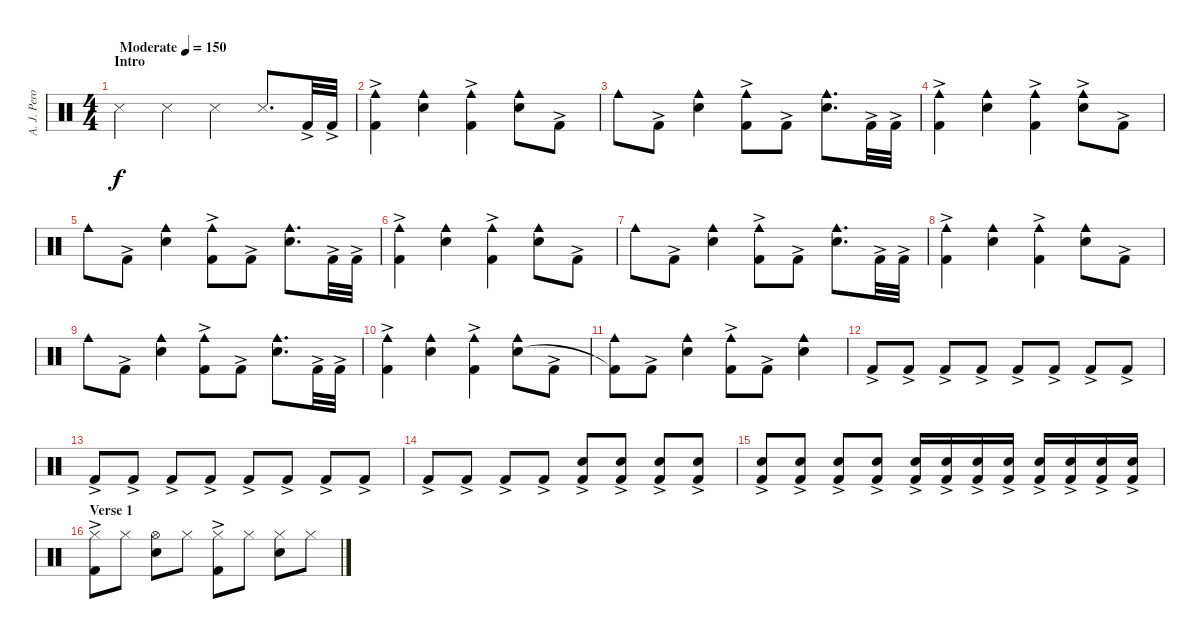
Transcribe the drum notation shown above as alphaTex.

\track ("A. J. Pero - Drums" "A. J. Pero") {instrument percussion}
\staff {score}
\articulation defaults
\ts (4 4)
\section ("" "Intro")
\tempo (150 "Moderate")
\clef neutral
\ks c "Snare (side stick) 3".4{dy f} "Snare (side stick) 3".4 "Snare (side stick) 3".4 "Snare (side stick) 3".8{d} "Kick (hit) 2"{ac}.32 "Kick (hit) 2"{ac}.32
|
("Cowbell medium (hit)" "Kick (hit) 2"{ac}).4 ("Cowbell medium (hit)" "Electric Snare (hit)").4 ("Cowbell medium (hit)" "Kick (hit) 2"{ac}).4 ("Cowbell medium (hit)" "Electric Snare (hit)").8 "Kick (hit) 2"{ac}.8 |
"Cowbell medium (hit)".8 "Kick (hit) 2"{ac}.8 ("Cowbell medium (hit)" "Electric Snare (hit)").4 ("Cowbell medium (hit)" "Kick (hit) 2"{ac}).8 "Kick (hit) 2"{ac}.8 ("Cowbell medium (hit)" "Electric Snare (hit)").8{d} "Kick (hit) 2"{ac}.32 "Kick (hit) 2"{ac}.32 |
("Cowbell medium (hit)" "Kick (hit) 2"{ac}).4 ("Cowbell medium (hit)" "Electric Snare (hit)").4 ("Cowbell medium (hit)" "Kick (hit) 2"{ac}).4 ("Cowbell medium (hit)" "Electric Snare (hit)"{ac}).8 "Kick (hit) 2"{ac}.8 |
"Cowbell medium (hit)".8 "Kick (hit) 2"{ac}.8 ("Cowbell medium (hit)" "Electric Snare (hit)").4 ("Cowbell medium (hit)" "Kick (hit) 2"{ac}).8 "Kick (hit) 2"{ac}.8 ("Cowbell medium (hit)" "Electric Snare (hit)").8{d} "Kick (hit) 2"{ac}.32 "Kick (hit) 2"{ac}.32 |
("Cowbell medium (hit)" "Kick (hit) 2"{ac}).4 ("Cowbell medium (hit)" "Electric Snare (hit)").4 ("Cowbell medium (hit)" "Kick (hit) 2"{ac}).4 ("Cowbell medium (hit)" "Electric Snare (hit)").8 "Kick (hit) 2"{ac}.8 |
"Cowbell medium (hit)".8 "Kick (hit) 2"{ac}.8 ("Cowbell medium (hit)" "Electric Snare (hit)").4 ("Cowbell medium (hit)" "Kick (hit) 2"{ac}).8 "Kick (hit) 2"{ac}.8 ("Cowbell medium (hit)" "Electric Snare (hit)").8{d} "Kick (hit) 2"{ac}.32 "Kick (hit) 2"{ac}.32 |
("Cowbell medium (hit)" "Kick (hit) 2"{ac}).4 ("Cowbell medium (hit)" "Electric Snare (hit)").4 ("Cowbell medium (hit)" "Kick (hit) 2"{ac}).4 ("Cowbell medium (hit)" "Electric Snare (hit)").8 "Kick (hit) 2"{ac}.8 |
"Cowbell medium (hit)".8 "Kick (hit) 2"{ac}.8 ("Cowbell medium (hit)" "Electric Snare (hit)").4 ("Cowbell medium (hit)" "Kick (hit) 2"{ac}).8 "Kick (hit) 2"{ac}.8 ("Cowbell medium (hit)" "Electric Snare (hit)").8{d} "Kick (hit) 2"{ac}.32 "Kick (hit) 2"{ac}.32 |
("Cowbell medium (hit)" "Kick (hit) 2"{ac}).4 ("Cowbell medium (hit)" "Electric Snare (hit)").4 ("Cowbell medium (hit)" "Kick (hit) 2"{ac}).4 ("Cowbell medium (hit)" "Electric Snare (hit)").8 "Kick (hit) 2"{ac}.8 |
("Cowbell medium (hit)" "Kick (hit) 2"{t}).8 "Kick (hit) 2"{ac}.8 ("Cowbell medium (hit)" "Electric Snare (hit)").4 ("Cowbell medium (hit)" "Kick (hit) 2"{ac}).8 "Kick (hit) 2"{ac}.8 ("Cowbell medium (hit)" "Electric Snare (hit)").4 |
"Kick (hit) 2"{ac}.8 "Kick (hit) 2"{ac}.8 "Kick (hit) 2"{ac}.8 "Kick (hit) 2"{ac}.8 "Kick (hit) 2"{ac}.8 "Kick (hit) 2"{ac}.8 "Kick (hit) 2"{ac}.8 "Kick (hit) 2"{ac}.8 |
"Kick (hit) 2"{ac}.8 "Kick (hit) 2"{ac}.8 "Kick (hit) 2"{ac}.8 "Kick (hit) 2"{ac}.8 "Kick (hit) 2"{ac}.8 "Kick (hit) 2"{ac}.8 "Kick (hit) 2"{ac}.8 "Kick (hit) 2"{ac}.8 |
"Kick (hit) 2"{ac}.8 "Kick (hit) 2"{ac}.8 "Kick (hit) 2"{ac}.8 "Kick (hit) 2"{ac}.8 ("Electric Snare (hit)" "Kick (hit) 2"{ac}).8 ("Electric Snare (hit)" "Kick (hit) 2"{ac}).8 ("Electric Snare (hit)" "Kick (hit) 2"{ac}).8 ("Electric Snare (hit)" "Kick (hit) 2"{ac}).8 |
("Electric Snare (hit)" "Kick (hit) 2"{ac}).8 ("Electric Snare (hit)" "Kick (hit) 2"{ac}).8 ("Electric Snare (hit)" "Kick (hit) 2"{ac}).8 ("Electric Snare (hit)" "Kick (hit) 2"{ac}).8 ("Electric Snare (hit)" "Kick (hit) 2"{ac}).16 ("Electric Snare (hit)" "Kick (hit) 2"{ac}).16 ("Electric Snare (hit)" "Kick (hit) 2"{ac}).16 ("Electric Snare (hit)" "Kick (hit) 2"{ac}).16 ("Electric Snare (hit)" "Kick (hit) 2"{ac}).16 ("Electric Snare (hit)" "Kick (hit) 2"{ac}).16 ("Electric Snare (hit)" "Kick (hit) 2"{ac}).16 ("Electric Snare (hit)" "Kick (hit) 2"{ac}).16 |
\section ("" "Verse 1")
("Hi-Hat (closed)" "Kick (hit) 2"{ac}).8 "Hi-Hat (closed)".8 ("Hi-Hat (open)" "Electric Snare (hit)").8 "Hi-Hat (closed)".8 ("Hi-Hat (closed)" "Kick (hit) 2"{ac}).8 "Hi-Hat (closed)".8 ("Hi-Hat (closed)" "Electric Snare (hit)").8 "Hi-Hat (closed)".8
